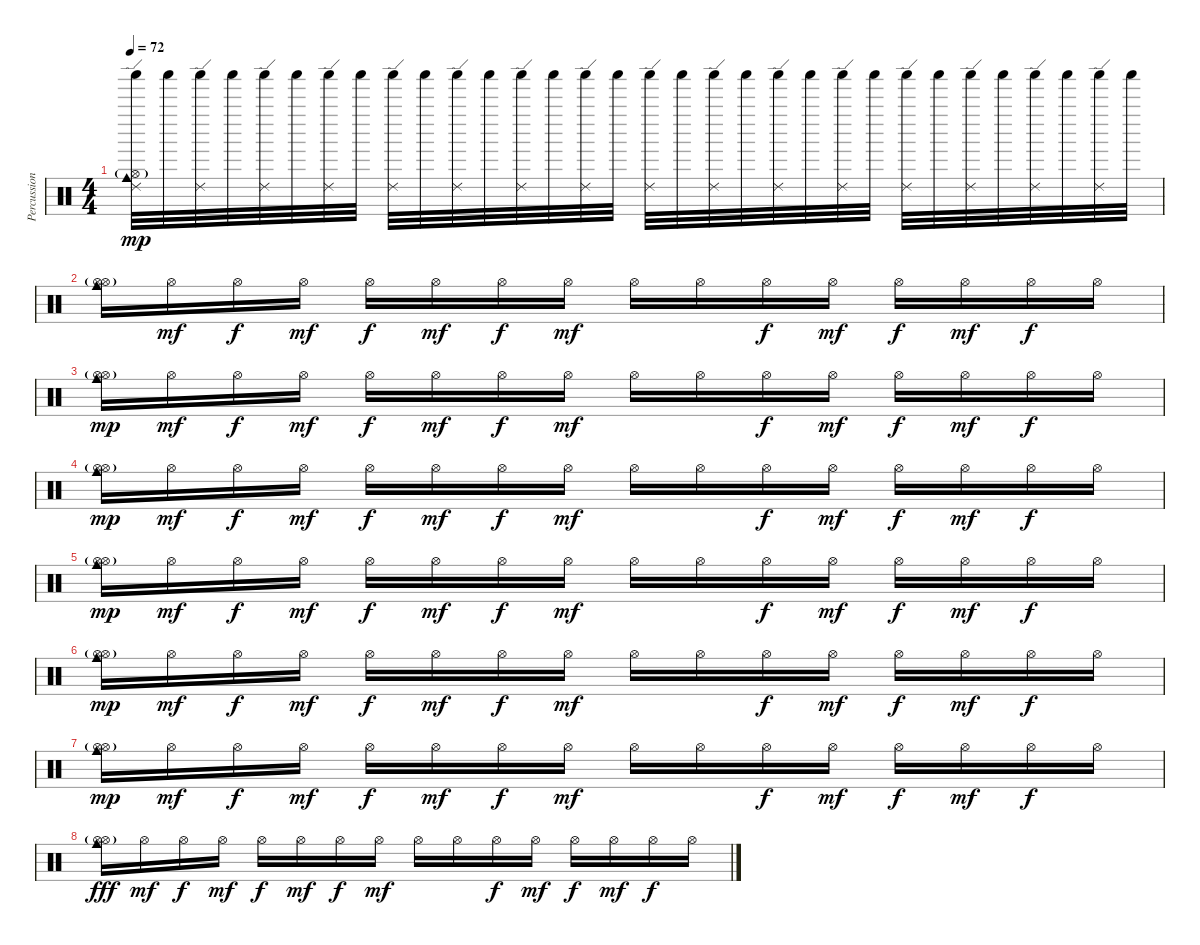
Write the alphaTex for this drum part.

\track ("Percussion" "Percussion") {instrument percussion}
\staff {score}
\articulation defaults
\ts (4 4)
\tempo 72
\clef neutral
\ks c
("Ride (edge) 2" "Hi-Hat (open)"{g} "Cowbell medium (hit)" "Shaker (hit)").32{dy mp} "Shaker (hit)".32 ("Ride (edge) 2" "Shaker (hit)").32 "Shaker (hit)".32 ("Ride (edge) 2" "Shaker (hit)").32 "Shaker (hit)".32 ("Ride (edge) 2" "Shaker (hit)").32 "Shaker (hit)".32 ("Ride (edge) 2" "Shaker (hit)").32 "Shaker (hit)".32 ("Ride (edge) 2" "Shaker (hit)").32 "Shaker (hit)".32 ("Ride (edge) 2" "Shaker (hit)").32 "Shaker (hit)".32 ("Ride (edge) 2" "Shaker (hit)").32 "Shaker (hit)".32 ("Ride (edge) 2" "Shaker (hit)").32 "Shaker (hit)".32 ("Ride (edge) 2" "Shaker (hit)").32 "Shaker (hit)".32 ("Ride (edge) 2" "Shaker (hit)").32 "Shaker (hit)".32 ("Ride (edge) 2" "Shaker (hit)").32 "Shaker (hit)".32 ("Ride (edge) 2" "Shaker (hit)").32 "Shaker (hit)".32 ("Ride (edge) 2" "Shaker (hit)").32 "Shaker (hit)".32 ("Ride (edge) 2" "Shaker (hit)").32 "Shaker (hit)".32 ("Ride (edge) 2" "Shaker (hit)").32 "Shaker (hit)".32 |
("Hi-Hat (open)" "Hi-Hat (open)"{g} "Cowbell medium (hit)").16{volume 7} "Hi-Hat (open)".16{dy mf} "Hi-Hat (open)".16{dy f} "Hi-Hat (open)".16{dy mf} "Hi-Hat (open)".16{dy f} "Hi-Hat (open)".16{dy mf} "Hi-Hat (open)".16{dy f} "Hi-Hat (open)".16{dy mf} "Hi-Hat (open)".16 "Hi-Hat (open)".16 "Hi-Hat (open)".16{dy f} "Hi-Hat (open)".16{dy mf} "Hi-Hat (open)".16{dy f} "Hi-Hat (open)".16{dy mf} "Hi-Hat (open)".16{dy f} "Hi-Hat (open)".16 |
("Hi-Hat (open)" "Hi-Hat (open)"{g} "Cowbell medium (hit)").16{dy mp} "Hi-Hat (open)".16{dy mf} "Hi-Hat (open)".16{dy f} "Hi-Hat (open)".16{dy mf} "Hi-Hat (open)".16{dy f} "Hi-Hat (open)".16{dy mf} "Hi-Hat (open)".16{dy f} "Hi-Hat (open)".16{dy mf} "Hi-Hat (open)".16 "Hi-Hat (open)".16 "Hi-Hat (open)".16{dy f} "Hi-Hat (open)".16{dy mf} "Hi-Hat (open)".16{dy f} "Hi-Hat (open)".16{dy mf} "Hi-Hat (open)".16{dy f} "Hi-Hat (open)".16 |
("Hi-Hat (open)" "Hi-Hat (open)"{g} "Cowbell medium (hit)").16{dy mp} "Hi-Hat (open)".16{dy mf} "Hi-Hat (open)".16{dy f} "Hi-Hat (open)".16{dy mf} "Hi-Hat (open)".16{dy f} "Hi-Hat (open)".16{dy mf} "Hi-Hat (open)".16{dy f} "Hi-Hat (open)".16{dy mf} "Hi-Hat (open)".16 "Hi-Hat (open)".16 "Hi-Hat (open)".16{dy f} "Hi-Hat (open)".16{dy mf} "Hi-Hat (open)".16{dy f} "Hi-Hat (open)".16{dy mf} "Hi-Hat (open)".16{dy f} "Hi-Hat (open)".16 |
("Hi-Hat (open)" "Hi-Hat (open)"{g} "Cowbell medium (hit)").16{dy mp} "Hi-Hat (open)".16{dy mf} "Hi-Hat (open)".16{dy f} "Hi-Hat (open)".16{dy mf} "Hi-Hat (open)".16{dy f} "Hi-Hat (open)".16{dy mf} "Hi-Hat (open)".16{dy f} "Hi-Hat (open)".16{dy mf} "Hi-Hat (open)".16 "Hi-Hat (open)".16 "Hi-Hat (open)".16{dy f} "Hi-Hat (open)".16{dy mf} "Hi-Hat (open)".16{dy f} "Hi-Hat (open)".16{dy mf} "Hi-Hat (open)".16{dy f} "Hi-Hat (open)".16 |
("Hi-Hat (open)" "Hi-Hat (open)"{g} "Cowbell medium (hit)").16{dy mp} "Hi-Hat (open)".16{dy mf} "Hi-Hat (open)".16{dy f} "Hi-Hat (open)".16{dy mf} "Hi-Hat (open)".16{dy f} "Hi-Hat (open)".16{dy mf} "Hi-Hat (open)".16{dy f} "Hi-Hat (open)".16{dy mf} "Hi-Hat (open)".16 "Hi-Hat (open)".16 "Hi-Hat (open)".16{dy f} "Hi-Hat (open)".16{dy mf} "Hi-Hat (open)".16{dy f} "Hi-Hat (open)".16{dy mf} "Hi-Hat (open)".16{dy f} "Hi-Hat (open)".16 |
("Hi-Hat (open)" "Hi-Hat (open)"{g} "Cowbell medium (hit)").16{dy mp} "Hi-Hat (open)".16{dy mf} "Hi-Hat (open)".16{dy f} "Hi-Hat (open)".16{dy mf} "Hi-Hat (open)".16{dy f} "Hi-Hat (open)".16{dy mf} "Hi-Hat (open)".16{dy f} "Hi-Hat (open)".16{dy mf} "Hi-Hat (open)".16 "Hi-Hat (open)".16 "Hi-Hat (open)".16{dy f} "Hi-Hat (open)".16{dy mf} "Hi-Hat (open)".16{dy f} "Hi-Hat (open)".16{dy mf} "Hi-Hat (open)".16{dy f} "Hi-Hat (open)".16 |
("Hi-Hat (open)" "Hi-Hat (open)"{g} "Cowbell medium (hit)").16{dy fff volume 0} "Hi-Hat (open)".16{dy mf} "Hi-Hat (open)".16{dy f} "Hi-Hat (open)".16{dy mf} "Hi-Hat (open)".16{dy f} "Hi-Hat (open)".16{dy mf} "Hi-Hat (open)".16{dy f} "Hi-Hat (open)".16{dy mf} "Hi-Hat (open)".16 "Hi-Hat (open)".16 "Hi-Hat (open)".16{dy f} "Hi-Hat (open)".16{dy mf} "Hi-Hat (open)".16{dy f} "Hi-Hat (open)".16{dy mf} "Hi-Hat (open)".16{dy f} "Hi-Hat (open)".16
